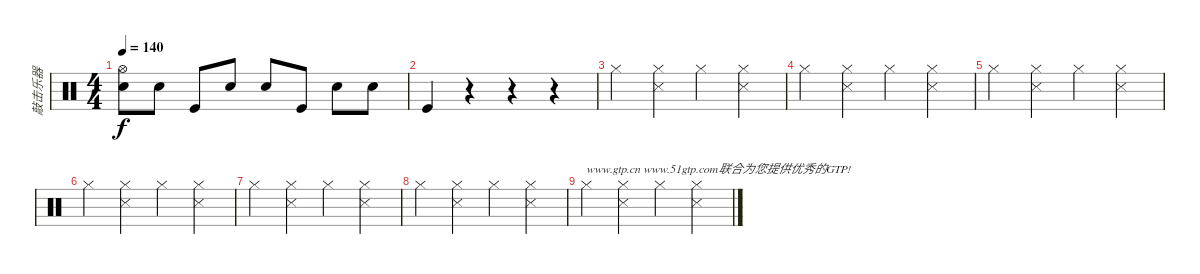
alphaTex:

\track ("敲击乐器" "敲击乐器") {instrument percussion}
\staff {score}
\articulation defaults
\ts (4 4)
\tempo 140
\clef neutral
\ks c
("Hi-Hat (open)" "Snare (hit) 2").8{dy f} "Snare (hit) 2".8 "Kick (hit)".8 "Snare (hit) 2".8 "Snare (hit) 2".8 "Kick (hit)".8 "Snare (hit) 2".8 "Snare (hit) 2".8 |
"Kick (hit)".4 r.4 r.4 r.4 |
"Hi-Hat (closed)".4 ("Hi-Hat (closed)" "Snare (side stick) 3").4 "Hi-Hat (closed)".4 ("Hi-Hat (closed)" "Snare (side stick) 3").4 |
"Hi-Hat (closed)".4 ("Hi-Hat (closed)" "Snare (side stick) 3").4 "Hi-Hat (closed)".4 ("Hi-Hat (closed)" "Snare (side stick) 3").4 |
"Hi-Hat (closed)".4 ("Hi-Hat (closed)" "Snare (side stick) 3").4 "Hi-Hat (closed)".4 ("Hi-Hat (closed)" "Snare (side stick) 3").4 |
"Hi-Hat (closed)".4 ("Hi-Hat (closed)" "Snare (side stick) 3").4 "Hi-Hat (closed)".4 ("Hi-Hat (closed)" "Snare (side stick) 3").4 |
"Hi-Hat (closed)".4 ("Hi-Hat (closed)" "Snare (side stick) 3").4 "Hi-Hat (closed)".4 ("Hi-Hat (closed)" "Snare (side stick) 3").4 |
"Hi-Hat (closed)".4 ("Hi-Hat (closed)" "Snare (side stick) 3").4 "Hi-Hat (closed)".4 ("Hi-Hat (closed)" "Snare (side stick) 3").4 |
"Hi-Hat (closed)".4{txt "www.gtp.cn www.51gtp.com联合为您提供优秀的GTP!"} ("Hi-Hat (closed)" "Snare (side stick) 3").4 "Hi-Hat (closed)".4 ("Hi-Hat (closed)" "Snare (side stick) 3").4
